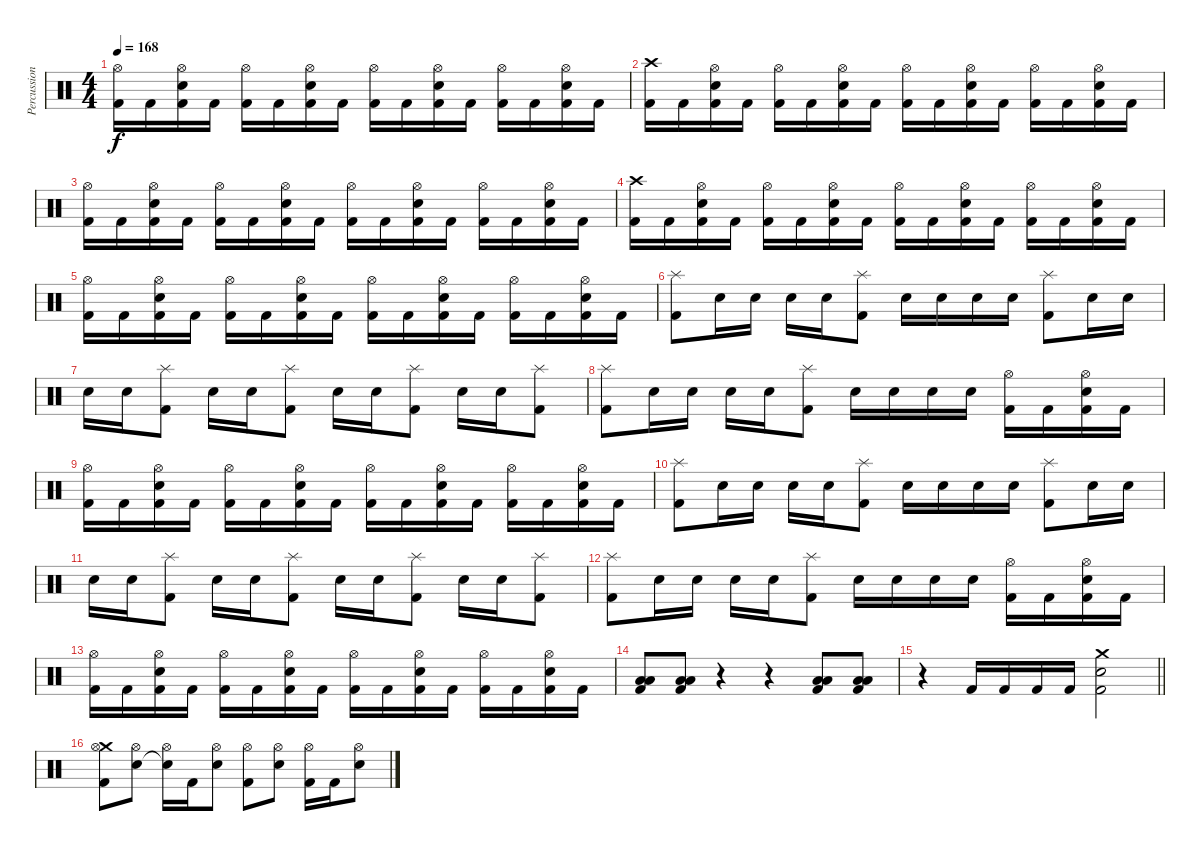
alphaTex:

\track ("Percussions" "Percussion") {instrument percussion}
\staff {score}
\articulation defaults
\ts (4 4)
\tempo 168
\clef neutral
\ks c
("Hi-Hat (open)" "Kick (hit) 2").16{dy f} "Kick (hit) 2".16 ("Hi-Hat (open)" "Snare (hit) 2" "Kick (hit) 2").16 "Kick (hit) 2".16 ("Hi-Hat (open)" "Kick (hit) 2").16 "Kick (hit) 2".16 ("Hi-Hat (open)" "Snare (hit) 2" "Kick (hit) 2").16 "Kick (hit) 2".16 ("Hi-Hat (open)" "Kick (hit) 2").16 "Kick (hit) 2".16 ("Hi-Hat (open)" "Snare (hit) 2" "Kick (hit) 2").16 "Kick (hit) 2".16 ("Hi-Hat (open)" "Kick (hit) 2").16 "Kick (hit) 2".16 ("Hi-Hat (open)" "Snare (hit) 2" "Kick (hit) 2").16 "Kick (hit) 2".16 |
("Crash high (hit)" "Kick (hit) 2").16 "Kick (hit) 2".16 ("Hi-Hat (open)" "Snare (hit) 2" "Kick (hit) 2").16 "Kick (hit) 2".16 ("Hi-Hat (open)" "Kick (hit) 2").16 "Kick (hit) 2".16 ("Hi-Hat (open)" "Snare (hit) 2" "Kick (hit) 2").16 "Kick (hit) 2".16 ("Hi-Hat (open)" "Kick (hit) 2").16 "Kick (hit) 2".16 ("Hi-Hat (open)" "Snare (hit) 2" "Kick (hit) 2").16 "Kick (hit) 2".16 ("Hi-Hat (open)" "Kick (hit) 2").16 "Kick (hit) 2".16 ("Hi-Hat (open)" "Snare (hit) 2" "Kick (hit) 2").16 "Kick (hit) 2".16 |
("Hi-Hat (open)" "Kick (hit) 2").16 "Kick (hit) 2".16 ("Hi-Hat (open)" "Snare (hit) 2" "Kick (hit) 2").16 "Kick (hit) 2".16 ("Hi-Hat (open)" "Kick (hit) 2").16 "Kick (hit) 2".16 ("Hi-Hat (open)" "Snare (hit) 2" "Kick (hit) 2").16 "Kick (hit) 2".16 ("Hi-Hat (open)" "Kick (hit) 2").16 "Kick (hit) 2".16 ("Hi-Hat (open)" "Snare (hit) 2" "Kick (hit) 2").16 "Kick (hit) 2".16 ("Hi-Hat (open)" "Kick (hit) 2").16 "Kick (hit) 2".16 ("Hi-Hat (open)" "Snare (hit) 2" "Kick (hit) 2").16 "Kick (hit) 2".16 |
("Crash high (hit)" "Kick (hit) 2").16 "Kick (hit) 2".16 ("Hi-Hat (open)" "Snare (hit) 2" "Kick (hit) 2").16 "Kick (hit) 2".16 ("Hi-Hat (open)" "Kick (hit) 2").16 "Kick (hit) 2".16 ("Hi-Hat (open)" "Snare (hit) 2" "Kick (hit) 2").16 "Kick (hit) 2".16 ("Hi-Hat (open)" "Kick (hit) 2").16 "Kick (hit) 2".16 ("Hi-Hat (open)" "Snare (hit) 2" "Kick (hit) 2").16 "Kick (hit) 2".16 ("Hi-Hat (open)" "Kick (hit) 2").16 "Kick (hit) 2".16 ("Hi-Hat (open)" "Snare (hit) 2" "Kick (hit) 2").16 "Kick (hit) 2".16 |
("Hi-Hat (open)" "Kick (hit) 2").16 "Kick (hit) 2".16 ("Hi-Hat (open)" "Snare (hit) 2" "Kick (hit) 2").16 "Kick (hit) 2".16 ("Hi-Hat (open)" "Kick (hit) 2").16 "Kick (hit) 2".16 ("Hi-Hat (open)" "Snare (hit) 2" "Kick (hit) 2").16 "Kick (hit) 2".16 ("Hi-Hat (open)" "Kick (hit) 2").16 "Kick (hit) 2".16 ("Hi-Hat (open)" "Snare (hit) 2" "Kick (hit) 2").16 "Kick (hit) 2".16 ("Hi-Hat (open)" "Kick (hit) 2").16 "Kick (hit) 2".16 ("Hi-Hat (open)" "Snare (hit) 2" "Kick (hit) 2").16 "Kick (hit) 2".16 |
("Splash (hit)" "Kick (hit) 2").8 "Snare (hit) 2".16 "Snare (hit) 2".16 "Snare (hit) 2".16 "Snare (hit) 2".16 ("Splash (hit)" "Kick (hit) 2").8 "Snare (hit) 2".16 "Snare (hit) 2".16 "Snare (hit) 2".16 "Snare (hit) 2".16 ("Splash (hit)" "Kick (hit) 2").8 "Snare (hit) 2".16 "Snare (hit) 2".16 |
"Snare (hit) 2".16 "Snare (hit) 2".16 ("Splash (hit)" "Kick (hit) 2").8 "Snare (hit) 2".16 "Snare (hit) 2".16 ("Splash (hit)" "Kick (hit) 2").8 "Snare (hit) 2".16 "Snare (hit) 2".16 ("Splash (hit)" "Kick (hit) 2").8 "Snare (hit) 2".16 "Snare (hit) 2".16 ("Splash (hit)" "Kick (hit) 2").8 |
("Splash (hit)" "Kick (hit) 2").8 "Snare (hit) 2".16 "Snare (hit) 2".16 "Snare (hit) 2".16 "Snare (hit) 2".16 ("Splash (hit)" "Kick (hit) 2").8 "Snare (hit) 2".16 "Snare (hit) 2".16 "Snare (hit) 2".16 "Snare (hit) 2".16 ("Hi-Hat (open)" "Kick (hit) 2").16 "Kick (hit) 2".16 ("Hi-Hat (open)" "Snare (hit) 2" "Kick (hit) 2").16 "Kick (hit) 2".16 |
("Hi-Hat (open)" "Kick (hit) 2").16 "Kick (hit) 2".16 ("Hi-Hat (open)" "Snare (hit) 2" "Kick (hit) 2").16 "Kick (hit) 2".16 ("Hi-Hat (open)" "Kick (hit) 2").16 "Kick (hit) 2".16 ("Hi-Hat (open)" "Snare (hit) 2" "Kick (hit) 2").16 "Kick (hit) 2".16 ("Hi-Hat (open)" "Kick (hit) 2").16 "Kick (hit) 2".16 ("Hi-Hat (open)" "Snare (hit) 2" "Kick (hit) 2").16 "Kick (hit) 2".16 ("Hi-Hat (open)" "Kick (hit) 2").16 "Kick (hit) 2".16 ("Hi-Hat (open)" "Snare (hit) 2" "Kick (hit) 2").16 "Kick (hit) 2".16 |
("Splash (hit)" "Kick (hit) 2").8 "Snare (hit) 2".16 "Snare (hit) 2".16 "Snare (hit) 2".16 "Snare (hit) 2".16 ("Splash (hit)" "Kick (hit) 2").8 "Snare (hit) 2".16 "Snare (hit) 2".16 "Snare (hit) 2".16 "Snare (hit) 2".16 ("Splash (hit)" "Kick (hit) 2").8 "Snare (hit) 2".16 "Snare (hit) 2".16 |
"Snare (hit) 2".16 "Snare (hit) 2".16 ("Splash (hit)" "Kick (hit) 2").8 "Snare (hit) 2".16 "Snare (hit) 2".16 ("Splash (hit)" "Kick (hit) 2").8 "Snare (hit) 2".16 "Snare (hit) 2".16 ("Splash (hit)" "Kick (hit) 2").8 "Snare (hit) 2".16 "Snare (hit) 2".16 ("Splash (hit)" "Kick (hit) 2").8 |
("Splash (hit)" "Kick (hit) 2").8 "Snare (hit) 2".16 "Snare (hit) 2".16 "Snare (hit) 2".16 "Snare (hit) 2".16 ("Splash (hit)" "Kick (hit) 2").8 "Snare (hit) 2".16 "Snare (hit) 2".16 "Snare (hit) 2".16 "Snare (hit) 2".16 ("Hi-Hat (open)" "Kick (hit) 2").16 "Kick (hit) 2".16 ("Hi-Hat (open)" "Snare (hit) 2" "Kick (hit) 2").16 "Kick (hit) 2".16 |
("Hi-Hat (open)" "Kick (hit) 2").16 "Kick (hit) 2".16 ("Hi-Hat (open)" "Snare (hit) 2" "Kick (hit) 2").16 "Kick (hit) 2".16 ("Hi-Hat (open)" "Kick (hit) 2").16 "Kick (hit) 2".16 ("Hi-Hat (open)" "Snare (hit) 2" "Kick (hit) 2").16 "Kick (hit) 2".16 ("Hi-Hat (open)" "Kick (hit) 2").16 "Kick (hit) 2".16 ("Hi-Hat (open)" "Snare (hit) 2" "Kick (hit) 2").16 "Kick (hit) 2".16 ("Hi-Hat (open)" "Kick (hit) 2").16 "Kick (hit) 2".16 ("Hi-Hat (open)" "Snare (hit) 2" "Kick (hit) 2").16 "Kick (hit) 2".16 |
("Low Tom (hit)" "Low Floor Tom (hit)" "Kick (hit) 2").8 ("Low Tom (hit)" "Low Floor Tom (hit)" "Kick (hit) 2").8 r.4 r.4 ("Low Tom (hit)" "Low Floor Tom (hit)" "Kick (hit) 2").8 ("Low Tom (hit)" "Low Floor Tom (hit)" "Kick (hit) 2").8 |
\barLineRight lightlight
r.4 "Kick (hit) 2".16 "Kick (hit) 2".16 "Kick (hit) 2".16 "Kick (hit) 2".16 ("Crash medium (hit)" "Snare (hit) 2" "Kick (hit) 2").2 |
("Crash medium (hit)" "Hi-Hat (open)" "Kick (hit) 2").8 ("Hi-Hat (open)" "Snare (hit) 2").8 ("Hi-Hat (open)" "Snare (hit) 2"{t}).16 "Kick (hit) 2".16 ("Hi-Hat (open)" "Snare (hit) 2").8 ("Hi-Hat (open)" "Kick (hit) 2").8 ("Hi-Hat (open)" "Snare (hit) 2").8 ("Hi-Hat (open)" "Kick (hit) 2").16 "Kick (hit) 2".16 ("Hi-Hat (open)" "Snare (hit) 2").8
